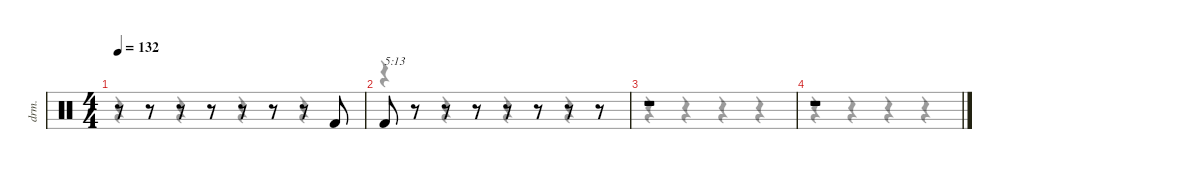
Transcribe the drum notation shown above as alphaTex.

\defaultSystemsLayout 4
\hideDynamics
\bracketExtendMode nobrackets
\otherSystemsTrackNameOrientation horizontal
\track ("Drums" "drm.") {instrument percussion}
\staff {score}
\articulation defaults
\voice
\ts (4 4)
\tempo 132
\clef neutral
\ks c
r.8{dy f} r.8 r.8 r.8 r.8 r.8 r.8 "Kick (hit) 2".8{dy fff} |
"Kick (hit) 2".8{txt "5:13"} r.8 r.8 r.8 r.8 r.8 r.8 r.8 |
r.1 |
r.1
\voice
\clef neutral
\ottava regular
\simile none
\ks c
r.4{dy mf} r.4 r.4 r.4 |
r.4 r.4 r.4 r.4 |
r.4 r.4 r.4 r.4 |
r.4 r.4 r.4 r.4
